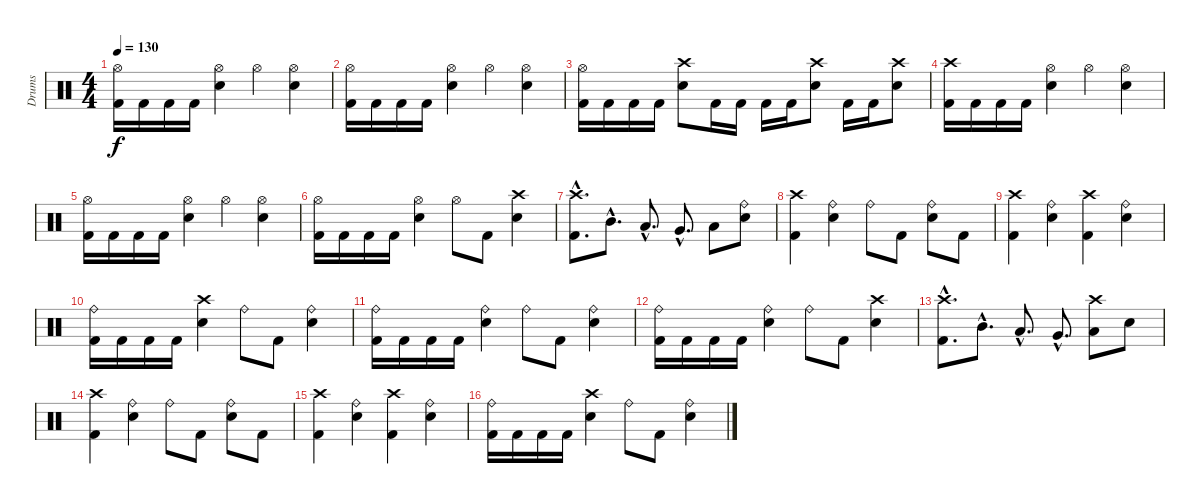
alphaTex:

\track ("Drums" "Drums") {instrument percussion}
\staff {score}
\articulation defaults
\ts (4 4)
\tempo 130
\clef neutral
\ks c
("Hi-Hat (open)" "Kick (hit) 2").16{dy f} "Kick (hit) 2".16 "Kick (hit) 2".16 "Kick (hit) 2".16 ("Snare (hit) 2" "Hi-Hat (open)").4 "Hi-Hat (open)".4 ("Snare (hit) 2" "Hi-Hat (open)").4 |
("Kick (hit) 2" "Hi-Hat (open)").16 "Kick (hit) 2".16 "Kick (hit) 2".16 "Kick (hit) 2".16 ("Snare (hit) 2" "Hi-Hat (open)").4 "Hi-Hat (open)".4 ("Hi-Hat (open)" "Snare (hit) 2").4 |
("Hi-Hat (open)" "Kick (hit) 2").16 "Kick (hit) 2".16 "Kick (hit) 2".16 "Kick (hit) 2".16 ("Crash high (hit)" "Snare (hit) 2").8 "Kick (hit) 2".16 "Kick (hit) 2".16 "Kick (hit) 2".16 "Kick (hit) 2".16 ("Crash high (hit)" "Snare (hit) 2").8 "Kick (hit) 2".16 "Kick (hit) 2".16 ("Snare (hit) 2" "Crash high (hit)").8 |
("Kick (hit) 2" "Crash high (hit)").16 "Kick (hit) 2".16 "Kick (hit) 2".16 "Kick (hit) 2".16 ("Hi-Hat (open)" "Snare (hit) 2").4 "Hi-Hat (open)".4 ("Snare (hit) 2" "Hi-Hat (open)").4 |
("Hi-Hat (open)" "Kick (hit) 2").16 "Kick (hit) 2".16 "Kick (hit) 2".16 "Kick (hit) 2".16 ("Snare (hit) 2" "Hi-Hat (open)").4 "Hi-Hat (open)".4 ("Snare (hit) 2" "Hi-Hat (open)").4 |
("Kick (hit) 2" "Hi-Hat (open)").16 "Kick (hit) 2".16 "Kick (hit) 2".16 "Kick (hit) 2".16 ("Hi-Hat (open)" "Snare (hit) 2").4 "Hi-Hat (open)".8 "Kick (hit) 2".8 ("Crash high (hit)" "Snare (hit) 2").4 |
("Crash high (hit)"{hac} "Kick (hit) 2").8{d} "Mid Tom (hit)"{hac}.8{d} "Low Tom (hit)"{hac}.8{d} "Very Low Tom (hit)"{hac}.8{d} "Low Floor Tom (hit)".8 ("Ride (bell)" "Snare (hit) 2").8 |
("Crash high (hit)" "Kick (hit) 2").4 ("Ride (bell)" "Snare (hit) 2").4 "Ride (bell)".8 "Kick (hit) 2".8 ("Snare (hit) 2" "Ride (bell)").8 "Kick (hit) 2".8 |
("Kick (hit) 2" "Crash high (hit)").4 ("Ride (bell)" "Snare (hit) 2").4 ("Crash high (hit)" "Kick (hit) 2").4 ("Ride (bell)" "Snare (hit) 2").4 |
("Kick (hit) 2" "Ride (bell)").16 "Kick (hit) 2".16 "Kick (hit) 2".16 "Kick (hit) 2".16 ("Snare (hit) 2" "Crash high (hit)").4 "Ride (bell)".8 "Kick (hit) 2".8 ("Snare (hit) 2" "Ride (bell)").4 |
("Kick (hit) 2" "Ride (bell)").16 "Kick (hit) 2".16 "Kick (hit) 2".16 "Kick (hit) 2".16 ("Ride (bell)" "Snare (hit) 2").4 "Ride (bell)".8 "Kick (hit) 2".8 ("Ride (bell)" "Snare (hit) 2").4 |
("Kick (hit) 2" "Ride (bell)").16 "Kick (hit) 2".16 "Kick (hit) 2".16 "Kick (hit) 2".16 ("Ride (bell)" "Snare (hit) 2").4 "Ride (bell)".8 "Kick (hit) 2".8 ("Snare (hit) 2" "Crash high (hit)").4 |
("Crash high (hit)"{hac} "Kick (hit) 2").8{d} "Mid Tom (hit)"{hac}.8{d} "Low Tom (hit)"{hac}.8{d} "Very Low Tom (hit)"{hac}.8{d} ("Crash high (hit)" "Low Floor Tom (hit)").8 "Snare (hit) 2".8 |
("Kick (hit) 2" "Crash high (hit)").4 ("Ride (bell)" "Snare (hit) 2").4 "Ride (bell)".8 "Kick (hit) 2".8 ("Snare (hit) 2" "Ride (bell)").8 "Kick (hit) 2".8 |
("Crash high (hit)" "Kick (hit) 2").4 ("Ride (bell)" "Snare (hit) 2").4 ("Kick (hit) 2" "Crash high (hit)").4 ("Snare (hit) 2" "Ride (bell)").4 |
("Kick (hit) 2" "Ride (bell)").16 "Kick (hit) 2".16 "Kick (hit) 2".16 "Kick (hit) 2".16 ("Crash high (hit)" "Snare (hit) 2").4 "Ride (bell)".8 "Kick (hit) 2".8 ("Snare (hit) 2" "Ride (bell)").4
